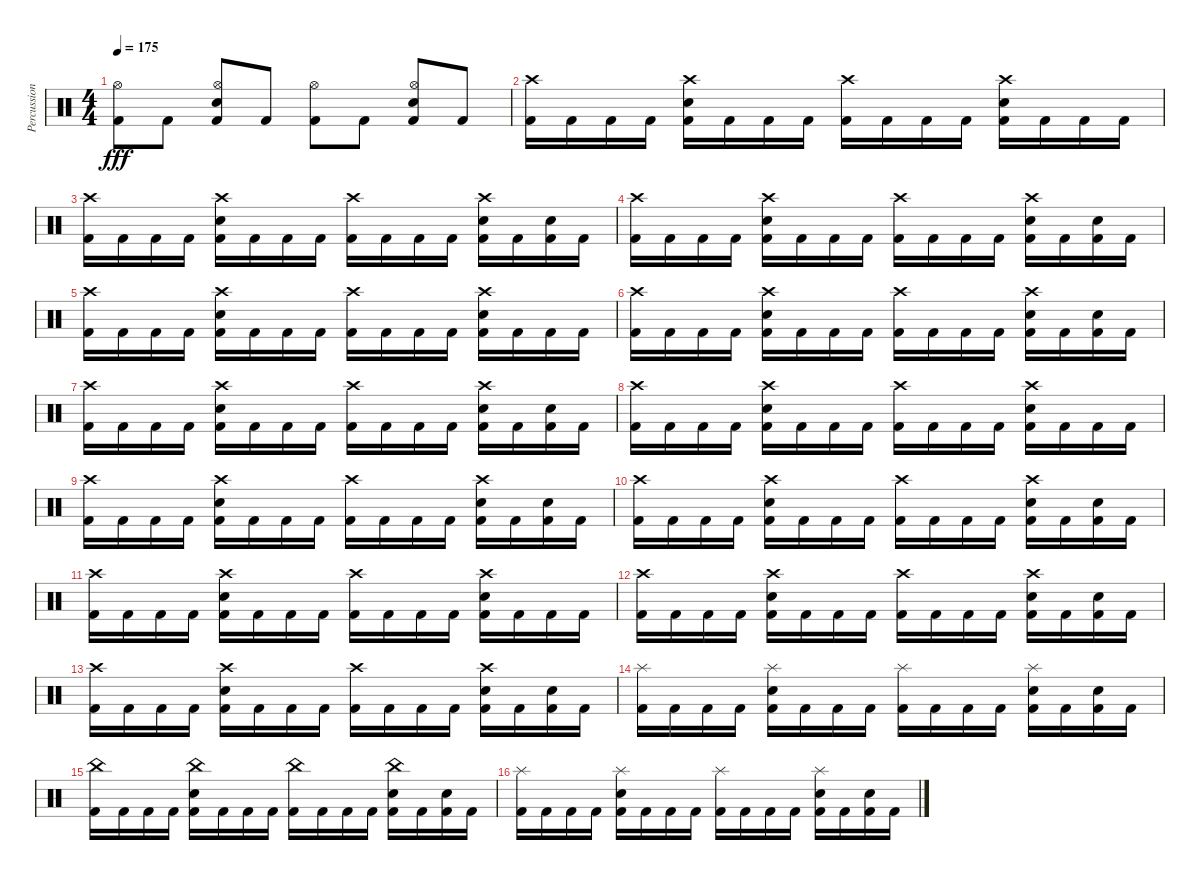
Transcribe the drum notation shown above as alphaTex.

\track ("Percussion" "Percussion") {instrument percussion}
\staff {score}
\articulation defaults
\ts (4 4)
\tempo 175
\clef neutral
\ks c
("Kick (hit) 2" "Hi-Hat (open)").8{dy fff} "Kick (hit) 2".8 ("Kick (hit) 2" "Electric Snare (hit)" "Hi-Hat (open)").8 "Kick (hit) 2".8 ("Kick (hit) 2" "Hi-Hat (open)").8 "Kick (hit) 2".8 ("Kick (hit) 2" "Electric Snare (hit)" "Hi-Hat (open)").8 "Kick (hit) 2".8 |
("Kick (hit) 2" "Crash high (hit)").16 "Kick (hit) 2".16 "Kick (hit) 2".16 "Kick (hit) 2".16 ("Kick (hit) 2" "Electric Snare (hit)" "Crash high (hit)").16 "Kick (hit) 2".16 "Kick (hit) 2".16 "Kick (hit) 2".16 ("Kick (hit) 2" "Crash high (hit)").16 "Kick (hit) 2".16 "Kick (hit) 2".16 "Kick (hit) 2".16 ("Kick (hit) 2" "Electric Snare (hit)" "Crash high (hit)").16 "Kick (hit) 2".16 "Kick (hit) 2".16 "Kick (hit) 2".16 |
("Kick (hit) 2" "Crash high (hit)").16 "Kick (hit) 2".16 "Kick (hit) 2".16 "Kick (hit) 2".16 ("Kick (hit) 2" "Electric Snare (hit)" "Crash high (hit)").16 "Kick (hit) 2".16 "Kick (hit) 2".16 "Kick (hit) 2".16 ("Kick (hit) 2" "Crash high (hit)").16 "Kick (hit) 2".16 "Kick (hit) 2".16 "Kick (hit) 2".16 ("Kick (hit) 2" "Electric Snare (hit)" "Crash high (hit)").16 "Kick (hit) 2".16 ("Kick (hit) 2" "Electric Snare (hit)").16 "Kick (hit) 2".16 |
("Kick (hit) 2" "Crash high (hit)").16 "Kick (hit) 2".16 "Kick (hit) 2".16 "Kick (hit) 2".16 ("Kick (hit) 2" "Electric Snare (hit)" "Crash high (hit)").16 "Kick (hit) 2".16 "Kick (hit) 2".16 "Kick (hit) 2".16 ("Kick (hit) 2" "Crash high (hit)").16 "Kick (hit) 2".16 "Kick (hit) 2".16 "Kick (hit) 2".16 ("Kick (hit) 2" "Electric Snare (hit)" "Crash high (hit)").16 "Kick (hit) 2".16 ("Kick (hit) 2" "Electric Snare (hit)").16 "Kick (hit) 2".16 |
("Kick (hit) 2" "Crash high (hit)").16 "Kick (hit) 2".16 "Kick (hit) 2".16 "Kick (hit) 2".16 ("Kick (hit) 2" "Electric Snare (hit)" "Crash high (hit)").16 "Kick (hit) 2".16 "Kick (hit) 2".16 "Kick (hit) 2".16 ("Kick (hit) 2" "Crash high (hit)").16 "Kick (hit) 2".16 "Kick (hit) 2".16 "Kick (hit) 2".16 ("Kick (hit) 2" "Electric Snare (hit)" "Crash high (hit)").16 "Kick (hit) 2".16 "Kick (hit) 2".16 "Kick (hit) 2".16 |
("Kick (hit) 2" "Crash high (hit)").16 "Kick (hit) 2".16 "Kick (hit) 2".16 "Kick (hit) 2".16 ("Kick (hit) 2" "Electric Snare (hit)" "Crash high (hit)").16 "Kick (hit) 2".16 "Kick (hit) 2".16 "Kick (hit) 2".16 ("Kick (hit) 2" "Crash high (hit)").16 "Kick (hit) 2".16 "Kick (hit) 2".16 "Kick (hit) 2".16 ("Kick (hit) 2" "Electric Snare (hit)" "Crash high (hit)").16 "Kick (hit) 2".16 ("Kick (hit) 2" "Electric Snare (hit)").16 "Kick (hit) 2".16 |
("Kick (hit) 2" "Crash high (hit)").16 "Kick (hit) 2".16 "Kick (hit) 2".16 "Kick (hit) 2".16 ("Kick (hit) 2" "Electric Snare (hit)" "Crash high (hit)").16 "Kick (hit) 2".16 "Kick (hit) 2".16 "Kick (hit) 2".16 ("Kick (hit) 2" "Crash high (hit)").16 "Kick (hit) 2".16 "Kick (hit) 2".16 "Kick (hit) 2".16 ("Kick (hit) 2" "Electric Snare (hit)" "Crash high (hit)").16 "Kick (hit) 2".16 ("Kick (hit) 2" "Electric Snare (hit)").16 "Kick (hit) 2".16 |
("Kick (hit) 2" "Crash high (hit)").16 "Kick (hit) 2".16 "Kick (hit) 2".16 "Kick (hit) 2".16 ("Kick (hit) 2" "Electric Snare (hit)" "Crash high (hit)").16 "Kick (hit) 2".16 "Kick (hit) 2".16 "Kick (hit) 2".16 ("Kick (hit) 2" "Crash high (hit)").16 "Kick (hit) 2".16 "Kick (hit) 2".16 "Kick (hit) 2".16 ("Kick (hit) 2" "Electric Snare (hit)" "Crash high (hit)").16 "Kick (hit) 2".16 "Kick (hit) 2".16 "Kick (hit) 2".16 |
("Kick (hit) 2" "Crash high (hit)").16 "Kick (hit) 2".16 "Kick (hit) 2".16 "Kick (hit) 2".16 ("Kick (hit) 2" "Electric Snare (hit)" "Crash high (hit)").16 "Kick (hit) 2".16 "Kick (hit) 2".16 "Kick (hit) 2".16 ("Kick (hit) 2" "Crash high (hit)").16 "Kick (hit) 2".16 "Kick (hit) 2".16 "Kick (hit) 2".16 ("Kick (hit) 2" "Electric Snare (hit)" "Crash high (hit)").16 "Kick (hit) 2".16 ("Kick (hit) 2" "Electric Snare (hit)").16 "Kick (hit) 2".16 |
("Kick (hit) 2" "Crash high (hit)").16 "Kick (hit) 2".16 "Kick (hit) 2".16 "Kick (hit) 2".16 ("Kick (hit) 2" "Electric Snare (hit)" "Crash high (hit)").16 "Kick (hit) 2".16 "Kick (hit) 2".16 "Kick (hit) 2".16 ("Kick (hit) 2" "Crash high (hit)").16 "Kick (hit) 2".16 "Kick (hit) 2".16 "Kick (hit) 2".16 ("Kick (hit) 2" "Electric Snare (hit)" "Crash high (hit)").16 "Kick (hit) 2".16 ("Kick (hit) 2" "Electric Snare (hit)").16 "Kick (hit) 2".16 |
("Kick (hit) 2" "Crash high (hit)").16 "Kick (hit) 2".16 "Kick (hit) 2".16 "Kick (hit) 2".16 ("Kick (hit) 2" "Electric Snare (hit)" "Crash high (hit)").16 "Kick (hit) 2".16 "Kick (hit) 2".16 "Kick (hit) 2".16 ("Kick (hit) 2" "Crash high (hit)").16 "Kick (hit) 2".16 "Kick (hit) 2".16 "Kick (hit) 2".16 ("Kick (hit) 2" "Electric Snare (hit)" "Crash high (hit)").16 "Kick (hit) 2".16 "Kick (hit) 2".16 "Kick (hit) 2".16 |
("Kick (hit) 2" "Crash high (hit)").16 "Kick (hit) 2".16 "Kick (hit) 2".16 "Kick (hit) 2".16 ("Kick (hit) 2" "Electric Snare (hit)" "Crash high (hit)").16 "Kick (hit) 2".16 "Kick (hit) 2".16 "Kick (hit) 2".16 ("Kick (hit) 2" "Crash high (hit)").16 "Kick (hit) 2".16 "Kick (hit) 2".16 "Kick (hit) 2".16 ("Kick (hit) 2" "Electric Snare (hit)" "Crash high (hit)").16 "Kick (hit) 2".16 ("Kick (hit) 2" "Electric Snare (hit)").16 "Kick (hit) 2".16 |
("Kick (hit) 2" "Crash high (hit)").16 "Kick (hit) 2".16 "Kick (hit) 2".16 "Kick (hit) 2".16 ("Kick (hit) 2" "Electric Snare (hit)" "Crash high (hit)").16 "Kick (hit) 2".16 "Kick (hit) 2".16 "Kick (hit) 2".16 ("Kick (hit) 2" "Crash high (hit)").16 "Kick (hit) 2".16 "Kick (hit) 2".16 "Kick (hit) 2".16 ("Kick (hit) 2" "Electric Snare (hit)" "Crash high (hit)").16 "Kick (hit) 2".16 ("Kick (hit) 2" "Electric Snare (hit)").16 "Kick (hit) 2".16 |
("Kick (hit) 2" "Splash (hit)").16 "Kick (hit) 2".16 "Kick (hit) 2".16 "Kick (hit) 2".16 ("Kick (hit) 2" "Electric Snare (hit)" "Splash (hit)").16 "Kick (hit) 2".16 "Kick (hit) 2".16 "Kick (hit) 2".16 ("Kick (hit) 2" "Splash (hit)").16 "Kick (hit) 2".16 "Kick (hit) 2".16 "Kick (hit) 2".16 ("Kick (hit) 2" "Electric Snare (hit)" "Splash (hit)").16 "Kick (hit) 2".16 ("Kick (hit) 2" "Electric Snare (hit)").16 "Kick (hit) 2".16 |
("Kick (hit) 2" "China (hit)").16 "Kick (hit) 2".16 "Kick (hit) 2".16 "Kick (hit) 2".16 ("Kick (hit) 2" "Electric Snare (hit)" "China (hit)").16 "Kick (hit) 2".16 "Kick (hit) 2".16 "Kick (hit) 2".16 ("Kick (hit) 2" "China (hit)").16 "Kick (hit) 2".16 "Kick (hit) 2".16 "Kick (hit) 2".16 ("Kick (hit) 2" "Electric Snare (hit)" "China (hit)").16 "Kick (hit) 2".16 ("Kick (hit) 2" "Electric Snare (hit)").16 "Kick (hit) 2".16 |
("Kick (hit) 2" "Splash (hit)").16 "Kick (hit) 2".16 "Kick (hit) 2".16 "Kick (hit) 2".16 ("Kick (hit) 2" "Electric Snare (hit)" "Splash (hit)").16 "Kick (hit) 2".16 "Kick (hit) 2".16 "Kick (hit) 2".16 ("Kick (hit) 2" "Splash (hit)").16 "Kick (hit) 2".16 "Kick (hit) 2".16 "Kick (hit) 2".16 ("Kick (hit) 2" "Electric Snare (hit)" "Splash (hit)").16 "Kick (hit) 2".16 ("Kick (hit) 2" "Electric Snare (hit)").16 "Kick (hit) 2".16
